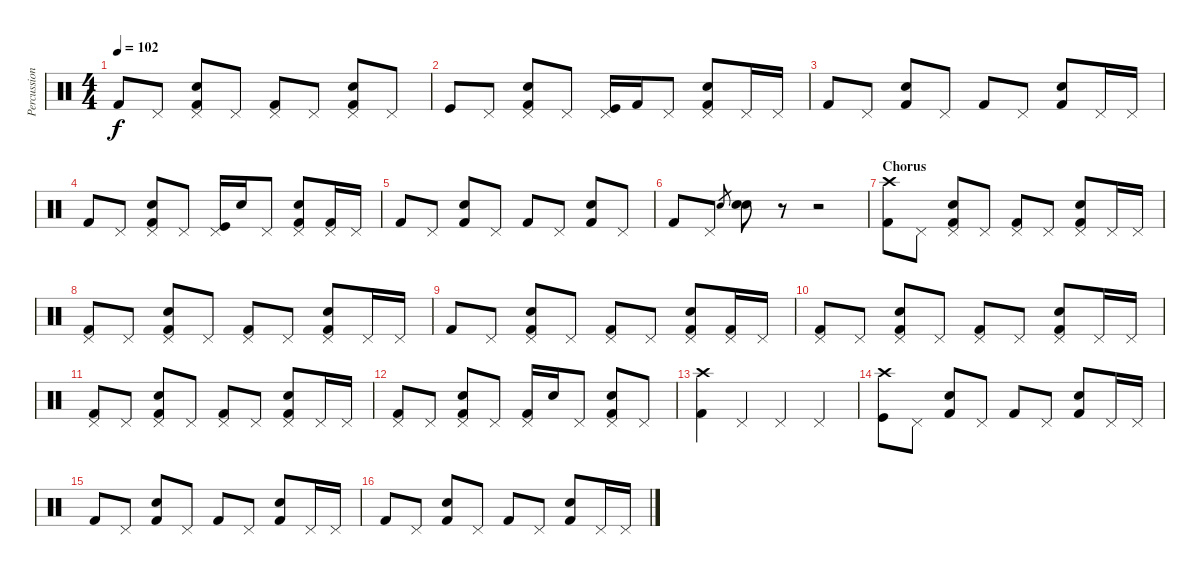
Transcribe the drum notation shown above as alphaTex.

\track ("Percussion" "Percussion") {instrument percussion}
\staff {score}
\articulation defaults
\ts (4 4)
\tempo 102
\clef neutral
\ks c "Kick (hit) 2".8{dy f} "Pedal Hi-Hat (hit)".8
("Pedal Hi-Hat (hit)" "Snare (hit) 2" "Kick (hit) 2").8 "Pedal Hi-Hat (hit)".8 ("Pedal Hi-Hat (hit)" "Kick (hit) 2").8 "Pedal Hi-Hat (hit)".8 ("Pedal Hi-Hat (hit)" "Snare (hit) 2" "Kick (hit) 2").8 "Pedal Hi-Hat (hit)".8 |
"Kick (hit)".8 "Pedal Hi-Hat (hit)".8 ("Pedal Hi-Hat (hit)" "Snare (hit) 2" "Kick (hit) 2").8 "Pedal Hi-Hat (hit)".8 ("Pedal Hi-Hat (hit)" "Kick (hit)").16 "Kick (hit) 2".16 "Pedal Hi-Hat (hit)".8 ("Pedal Hi-Hat (hit)" "Kick (hit) 2" "Snare (hit) 2").8 "Pedal Hi-Hat (hit)".16 "Pedal Hi-Hat (hit)".16 |
"Kick (hit) 2".8 "Pedal Hi-Hat (hit)".8 ("Snare (hit) 2" "Kick (hit) 2").8 "Pedal Hi-Hat (hit)".8 "Kick (hit) 2".8 "Pedal Hi-Hat (hit)".8 ("Snare (hit) 2" "Kick (hit) 2").8 "Pedal Hi-Hat (hit)".16 "Pedal Hi-Hat (hit)".16 |
"Kick (hit) 2".8 "Pedal Hi-Hat (hit)".8 ("Pedal Hi-Hat (hit)" "Snare (hit) 2" "Kick (hit) 2").8 "Pedal Hi-Hat (hit)".8 ("Pedal Hi-Hat (hit)" "Kick (hit)").16 "Snare (hit) 2".16 "Pedal Hi-Hat (hit)".8 ("Pedal Hi-Hat (hit)" "Snare (hit) 2" "Kick (hit) 2").8 ("Pedal Hi-Hat (hit)" "Kick (hit) 2").16 "Pedal Hi-Hat (hit)".16 |
"Kick (hit) 2".8 "Pedal Hi-Hat (hit)".8 ("Snare (hit) 2" "Kick (hit) 2").8 "Pedal Hi-Hat (hit)".8 "Kick (hit) 2".8 "Pedal Hi-Hat (hit)".8 ("Snare (hit) 2" "Kick (hit) 2").8 "Pedal Hi-Hat (hit)".8 |
"Kick (hit) 2".8 "Pedal Hi-Hat (hit)".8 "Snare (hit) 2".8{gr} ("Snare (hit) 2" "Snare (hit) 2").8 r.8 r.2 |
\section ("" "Chorus")
("Crash high (hit)" "Kick (hit) 2").8 "Pedal Hi-Hat (hit)".8 ("Pedal Hi-Hat (hit)" "Snare (hit) 2" "Kick (hit) 2").8 "Pedal Hi-Hat (hit)".8 ("Pedal Hi-Hat (hit)" "Kick (hit) 2").8 "Pedal Hi-Hat (hit)".8 ("Pedal Hi-Hat (hit)" "Snare (hit) 2" "Kick (hit) 2").8 "Pedal Hi-Hat (hit)".16 "Pedal Hi-Hat (hit)".16 |
("Pedal Hi-Hat (hit)" "Kick (hit) 2").8 "Pedal Hi-Hat (hit)".8 ("Pedal Hi-Hat (hit)" "Snare (hit) 2" "Kick (hit) 2").8 "Pedal Hi-Hat (hit)".8 ("Pedal Hi-Hat (hit)" "Kick (hit) 2").8 "Pedal Hi-Hat (hit)".8 ("Pedal Hi-Hat (hit)" "Snare (hit) 2" "Kick (hit) 2").8 "Pedal Hi-Hat (hit)".16 "Pedal Hi-Hat (hit)".16 |
"Kick (hit) 2".8 "Pedal Hi-Hat (hit)".8 ("Pedal Hi-Hat (hit)" "Snare (hit) 2" "Kick (hit) 2").8 "Pedal Hi-Hat (hit)".8 ("Pedal Hi-Hat (hit)" "Kick (hit) 2").8 "Pedal Hi-Hat (hit)".8 ("Pedal Hi-Hat (hit)" "Snare (hit) 2" "Kick (hit) 2").8 ("Pedal Hi-Hat (hit)" "Kick (hit) 2").16 "Pedal Hi-Hat (hit)".16 |
("Pedal Hi-Hat (hit)" "Kick (hit) 2").8 "Pedal Hi-Hat (hit)".8 ("Pedal Hi-Hat (hit)" "Snare (hit) 2" "Kick (hit) 2").8 "Pedal Hi-Hat (hit)".8 ("Pedal Hi-Hat (hit)" "Kick (hit) 2").8 "Pedal Hi-Hat (hit)".8 ("Pedal Hi-Hat (hit)" "Snare (hit) 2" "Kick (hit) 2").8 "Pedal Hi-Hat (hit)".16 "Pedal Hi-Hat (hit)".16 |
("Pedal Hi-Hat (hit)" "Kick (hit) 2").8 "Pedal Hi-Hat (hit)".8 ("Pedal Hi-Hat (hit)" "Snare (hit) 2" "Kick (hit) 2").8 "Pedal Hi-Hat (hit)".8 ("Pedal Hi-Hat (hit)" "Kick (hit) 2").8 "Pedal Hi-Hat (hit)".8 ("Pedal Hi-Hat (hit)" "Snare (hit) 2" "Kick (hit) 2").8 "Pedal Hi-Hat (hit)".16 "Pedal Hi-Hat (hit)".16 |
("Pedal Hi-Hat (hit)" "Kick (hit) 2").8 "Pedal Hi-Hat (hit)".8 ("Pedal Hi-Hat (hit)" "Snare (hit) 2" "Kick (hit) 2").8 "Pedal Hi-Hat (hit)".8 ("Pedal Hi-Hat (hit)" "Kick (hit) 2").16 "Snare (hit) 2".16 "Pedal Hi-Hat (hit)".8 ("Pedal Hi-Hat (hit)" "Snare (hit) 2" "Kick (hit) 2").8 "Pedal Hi-Hat (hit)".8 |
("Crash high (hit)" "Kick (hit) 2").4 "Pedal Hi-Hat (hit)".4 "Pedal Hi-Hat (hit)".4 "Pedal Hi-Hat (hit)".4 |
("Crash high (hit)" "Kick (hit)").8 "Pedal Hi-Hat (hit)".8 ("Snare (hit) 2" "Kick (hit) 2").8 "Pedal Hi-Hat (hit)".8 "Kick (hit) 2".8 "Pedal Hi-Hat (hit)".8 ("Snare (hit) 2" "Kick (hit) 2").8 "Pedal Hi-Hat (hit)".16 "Pedal Hi-Hat (hit)".16 |
"Kick (hit) 2".8 "Pedal Hi-Hat (hit)".8 ("Snare (hit) 2" "Kick (hit) 2").8 "Pedal Hi-Hat (hit)".8 "Kick (hit) 2".8 "Pedal Hi-Hat (hit)".8 ("Snare (hit) 2" "Kick (hit) 2").8 "Pedal Hi-Hat (hit)".16 "Pedal Hi-Hat (hit)".16 |
"Kick (hit) 2".8 "Pedal Hi-Hat (hit)".8 ("Snare (hit) 2" "Kick (hit) 2").8 "Pedal Hi-Hat (hit)".8 "Kick (hit) 2".8 "Pedal Hi-Hat (hit)".8 ("Snare (hit) 2" "Kick (hit) 2").8 "Pedal Hi-Hat (hit)".16 "Pedal Hi-Hat (hit)".16
